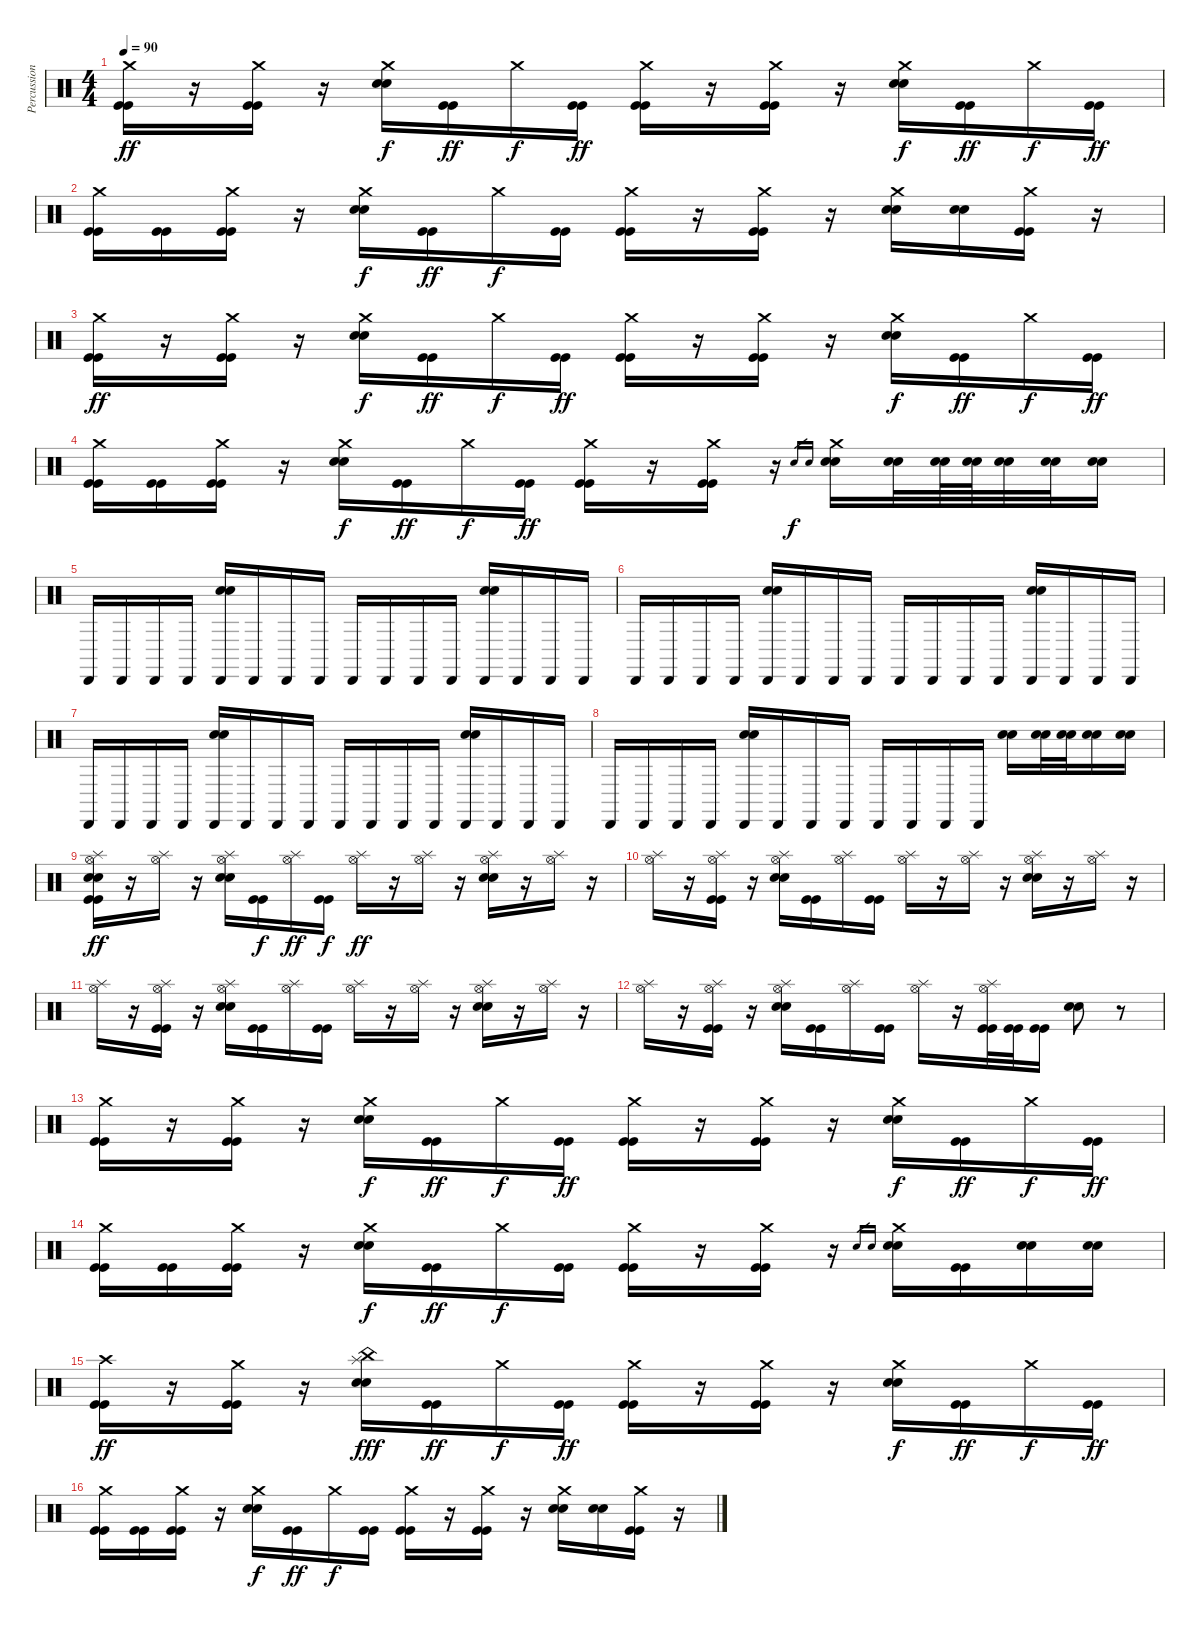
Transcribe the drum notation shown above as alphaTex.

\track ("Percussions" "Percussion") {instrument percussion}
\staff {score}
\articulation defaults
\ts (4 4)
\tempo 90
\clef neutral
\ks c
("Crash medium (hit)" "Kick (hit)" "Kick (hit)").16{dy ff} r.16 ("Crash medium (hit)" "Kick (hit)" "Kick (hit)").16 r.16 ("Crash medium (hit)" "Electric Snare (hit)" "Electric Snare (hit)").16{dy f} ("Kick (hit)" "Kick (hit)").16{dy ff} "Crash medium (hit)".16{dy f} ("Kick (hit)" "Kick (hit)").16{dy ff} ("Crash medium (hit)" "Kick (hit)" "Kick (hit)").16 r.16 ("Crash medium (hit)" "Kick (hit)" "Kick (hit)").16 r.16 ("Crash medium (hit)" "Electric Snare (hit)" "Electric Snare (hit)").16{dy f} ("Kick (hit)" "Kick (hit)").16{dy ff} "Crash medium (hit)".16{dy f} ("Kick (hit)" "Kick (hit)").16{dy ff} |
("Crash medium (hit)" "Kick (hit)" "Kick (hit)").16 ("Kick (hit)" "Kick (hit)").16 ("Crash medium (hit)" "Kick (hit)" "Kick (hit)").16 r.16 ("Crash medium (hit)" "Electric Snare (hit)" "Electric Snare (hit)").16{dy f} ("Kick (hit)" "Kick (hit)").16{dy ff} "Crash medium (hit)".16{dy f} ("Kick (hit)" "Kick (hit)").16 ("Crash medium (hit)" "Kick (hit)" "Kick (hit)").16 r.16 ("Crash medium (hit)" "Kick (hit)" "Kick (hit)").16 r.16 ("Crash medium (hit)" "Electric Snare (hit)" "Electric Snare (hit)").16 ("Electric Snare (hit)" "Electric Snare (hit)").16 ("Crash medium (hit)" "Kick (hit)" "Kick (hit)").16 r.16 |
("Crash medium (hit)" "Kick (hit)" "Kick (hit)").16{dy ff} r.16 ("Crash medium (hit)" "Kick (hit)" "Kick (hit)").16 r.16 ("Crash medium (hit)" "Electric Snare (hit)" "Electric Snare (hit)").16{dy f} ("Kick (hit)" "Kick (hit)").16{dy ff} "Crash medium (hit)".16{dy f} ("Kick (hit)" "Kick (hit)").16{dy ff} ("Crash medium (hit)" "Kick (hit)" "Kick (hit)").16 r.16 ("Crash medium (hit)" "Kick (hit)" "Kick (hit)").16 r.16 ("Crash medium (hit)" "Electric Snare (hit)" "Electric Snare (hit)").16{dy f} ("Kick (hit)" "Kick (hit)").16{dy ff} "Crash medium (hit)".16{dy f} ("Kick (hit)" "Kick (hit)").16{dy ff} |
("Crash medium (hit)" "Kick (hit)" "Kick (hit)").16 ("Kick (hit)" "Kick (hit)").16 ("Crash medium (hit)" "Kick (hit)" "Kick (hit)").16 r.16 ("Crash medium (hit)" "Electric Snare (hit)" "Electric Snare (hit)").16{dy f} ("Kick (hit)" "Kick (hit)").16{dy ff} "Crash medium (hit)".16{dy f} ("Kick (hit)" "Kick (hit)").16{dy ff} ("Crash medium (hit)" "Kick (hit)" "Kick (hit)").16 r.16 ("Crash medium (hit)" "Kick (hit)" "Kick (hit)").16 r.16 "Electric Snare (hit)".16{gr dy f} "Electric Snare (hit)".16{gr} ("Crash medium (hit)" "Electric Snare (hit)" "Electric Snare (hit)").16 ("Electric Snare (hit)" "Electric Snare (hit)").32 ("Electric Snare (hit)" "Electric Snare (hit)").64 ("Electric Snare (hit)" "Electric Snare (hit)").64 ("Electric Snare (hit)" "Electric Snare (hit)").32 ("Electric Snare (hit)" "Electric Snare (hit)").32 ("Electric Snare (hit)" "Electric Snare (hit)").16 |
"Cabasa (hit)".16 "Cabasa (hit)".16 "Cabasa (hit)".16 "Cabasa (hit)".16 ("Cabasa (hit)" "Electric Snare (hit)" "Electric Snare (hit)").16 "Cabasa (hit)".16 "Cabasa (hit)".16 "Cabasa (hit)".16 "Cabasa (hit)".16 "Cabasa (hit)".16 "Cabasa (hit)".16 "Cabasa (hit)".16 ("Cabasa (hit)" "Electric Snare (hit)" "Electric Snare (hit)").16 "Cabasa (hit)".16 "Cabasa (hit)".16 "Cabasa (hit)".16 |
"Cabasa (hit)".16 "Cabasa (hit)".16 "Cabasa (hit)".16 "Cabasa (hit)".16 ("Cabasa (hit)" "Electric Snare (hit)" "Electric Snare (hit)").16 "Cabasa (hit)".16 "Cabasa (hit)".16 "Cabasa (hit)".16 "Cabasa (hit)".16 "Cabasa (hit)".16 "Cabasa (hit)".16 "Cabasa (hit)".16 ("Cabasa (hit)" "Electric Snare (hit)" "Electric Snare (hit)").16 "Cabasa (hit)".16 "Cabasa (hit)".16 "Cabasa (hit)".16 |
"Cabasa (hit)".16 "Cabasa (hit)".16 "Cabasa (hit)".16 "Cabasa (hit)".16 ("Cabasa (hit)" "Electric Snare (hit)" "Electric Snare (hit)").16 "Cabasa (hit)".16 "Cabasa (hit)".16 "Cabasa (hit)".16 "Cabasa (hit)".16 "Cabasa (hit)".16 "Cabasa (hit)".16 "Cabasa (hit)".16 ("Cabasa (hit)" "Electric Snare (hit)" "Electric Snare (hit)").16 "Cabasa (hit)".16 "Cabasa (hit)".16 "Cabasa (hit)".16 |
"Cabasa (hit)".16 "Cabasa (hit)".16 "Cabasa (hit)".16 "Cabasa (hit)".16 ("Cabasa (hit)" "Electric Snare (hit)" "Electric Snare (hit)").16 "Cabasa (hit)".16 "Cabasa (hit)".16 "Cabasa (hit)".16 "Cabasa (hit)".16 "Cabasa (hit)".16 "Cabasa (hit)".16 "Cabasa (hit)".16 ("Electric Snare (hit)" "Electric Snare (hit)").16 ("Electric Snare (hit)" "Electric Snare (hit)").32 ("Electric Snare (hit)" "Electric Snare (hit)").32 ("Electric Snare (hit)" "Electric Snare (hit)").16 ("Electric Snare (hit)" "Electric Snare (hit)").16 |
("Hi-Hat (open)" "Splash (hit)" "Electric Snare (hit)" "Electric Snare (hit)" "Kick (hit)" "Kick (hit)").16{dy ff} r.16 ("Hi-Hat (open)" "Splash (hit)").16 r.16 ("Hi-Hat (open)" "Splash (hit)" "Electric Snare (hit)" "Electric Snare (hit)").16 ("Kick (hit)" "Kick (hit)").16{dy f} ("Hi-Hat (open)" "Splash (hit)").16{dy ff} ("Kick (hit)" "Kick (hit)").16{dy f} ("Hi-Hat (open)" "Splash (hit)").16{dy ff} r.16 ("Hi-Hat (open)" "Splash (hit)").16 r.16 ("Hi-Hat (open)" "Splash (hit)" "Electric Snare (hit)" "Electric Snare (hit)").16 r.16 ("Hi-Hat (open)" "Splash (hit)").16 r.16 |
("Hi-Hat (open)" "Splash (hit)").16 r.16 ("Hi-Hat (open)" "Splash (hit)" "Kick (hit)" "Kick (hit)").16 r.16 ("Hi-Hat (open)" "Splash (hit)" "Electric Snare (hit)" "Electric Snare (hit)").16 ("Kick (hit)" "Kick (hit)").16 ("Hi-Hat (open)" "Splash (hit)").16 ("Kick (hit)" "Kick (hit)").16 ("Hi-Hat (open)" "Splash (hit)").16 r.16 ("Hi-Hat (open)" "Splash (hit)").16 r.16 ("Hi-Hat (open)" "Splash (hit)" "Electric Snare (hit)" "Electric Snare (hit)").16 r.16 ("Hi-Hat (open)" "Splash (hit)").16 r.16 |
("Hi-Hat (open)" "Splash (hit)").16 r.16 ("Hi-Hat (open)" "Splash (hit)" "Kick (hit)" "Kick (hit)").16 r.16 ("Hi-Hat (open)" "Splash (hit)" "Electric Snare (hit)" "Electric Snare (hit)").16 ("Kick (hit)" "Kick (hit)").16 ("Hi-Hat (open)" "Splash (hit)").16 ("Kick (hit)" "Kick (hit)").16 ("Hi-Hat (open)" "Splash (hit)").16 r.16 ("Hi-Hat (open)" "Splash (hit)").16 r.16 ("Hi-Hat (open)" "Splash (hit)" "Electric Snare (hit)" "Electric Snare (hit)").16 r.16 ("Hi-Hat (open)" "Splash (hit)").16 r.16 |
("Hi-Hat (open)" "Splash (hit)").16 r.16 ("Hi-Hat (open)" "Splash (hit)" "Kick (hit)" "Kick (hit)").16 r.16 ("Hi-Hat (open)" "Splash (hit)" "Electric Snare (hit)" "Electric Snare (hit)").16 ("Kick (hit)" "Kick (hit)").16 ("Hi-Hat (open)" "Splash (hit)").16 ("Kick (hit)" "Kick (hit)").16 ("Hi-Hat (open)" "Splash (hit)").16 r.16 ("Hi-Hat (open)" "Splash (hit)" "Kick (hit)" "Kick (hit)").32 ("Kick (hit)" "Kick (hit)").32 ("Kick (hit)" "Kick (hit)").16 ("Electric Snare (hit)" "Electric Snare (hit)").8 r.8 |
("Crash medium (hit)" "Kick (hit)" "Kick (hit)").16 r.16 ("Crash medium (hit)" "Kick (hit)" "Kick (hit)").16 r.16 ("Crash medium (hit)" "Electric Snare (hit)" "Electric Snare (hit)").16{dy f} ("Kick (hit)" "Kick (hit)").16{dy ff} "Crash medium (hit)".16{dy f} ("Kick (hit)" "Kick (hit)").16{dy ff} ("Crash medium (hit)" "Kick (hit)" "Kick (hit)").16 r.16 ("Crash medium (hit)" "Kick (hit)" "Kick (hit)").16 r.16 ("Crash medium (hit)" "Electric Snare (hit)" "Electric Snare (hit)").16{dy f} ("Kick (hit)" "Kick (hit)").16{dy ff} "Crash medium (hit)".16{dy f} ("Kick (hit)" "Kick (hit)").16{dy ff} |
("Crash medium (hit)" "Kick (hit)" "Kick (hit)").16 ("Kick (hit)" "Kick (hit)").16 ("Crash medium (hit)" "Kick (hit)" "Kick (hit)").16 r.16 ("Crash medium (hit)" "Electric Snare (hit)" "Electric Snare (hit)").16{dy f} ("Kick (hit)" "Kick (hit)").16{dy ff} "Crash medium (hit)".16{dy f} ("Kick (hit)" "Kick (hit)").16 ("Crash medium (hit)" "Kick (hit)" "Kick (hit)").16 r.16 ("Crash medium (hit)" "Kick (hit)" "Kick (hit)").16 r.16 "Electric Snare (hit)".16{gr} "Electric Snare (hit)".16{gr} ("Crash medium (hit)" "Electric Snare (hit)" "Electric Snare (hit)").16 ("Kick (hit)" "Kick (hit)").16 ("Electric Snare (hit)" "Electric Snare (hit)").16 ("Electric Snare (hit)" "Electric Snare (hit)").16 |
("Crash high (hit)" "Kick (hit)" "Kick (hit)").16{dy ff} r.16 ("Crash medium (hit)" "Kick (hit)" "Kick (hit)").16 r.16 ("China (hit)" "Splash (hit)" "Electric Snare (hit)" "Electric Snare (hit)").16{dy fff} ("Kick (hit)" "Kick (hit)").16{dy ff} "Crash medium (hit)".16{dy f} ("Kick (hit)" "Kick (hit)").16{dy ff} ("Crash medium (hit)" "Kick (hit)" "Kick (hit)").16 r.16 ("Crash medium (hit)" "Kick (hit)" "Kick (hit)").16 r.16 ("Crash medium (hit)" "Electric Snare (hit)" "Electric Snare (hit)").16{dy f} ("Kick (hit)" "Kick (hit)").16{dy ff} "Crash medium (hit)".16{dy f} ("Kick (hit)" "Kick (hit)").16{dy ff} |
("Crash medium (hit)" "Kick (hit)" "Kick (hit)").16 ("Kick (hit)" "Kick (hit)").16 ("Crash medium (hit)" "Kick (hit)" "Kick (hit)").16 r.16 ("Crash medium (hit)" "Electric Snare (hit)" "Electric Snare (hit)").16{dy f} ("Kick (hit)" "Kick (hit)").16{dy ff} "Crash medium (hit)".16{dy f} ("Kick (hit)" "Kick (hit)").16 ("Crash medium (hit)" "Kick (hit)" "Kick (hit)").16 r.16 ("Crash medium (hit)" "Kick (hit)" "Kick (hit)").16 r.16 ("Crash medium (hit)" "Electric Snare (hit)" "Electric Snare (hit)").16 ("Electric Snare (hit)" "Electric Snare (hit)").16 ("Crash medium (hit)" "Kick (hit)" "Kick (hit)").16 r.16
